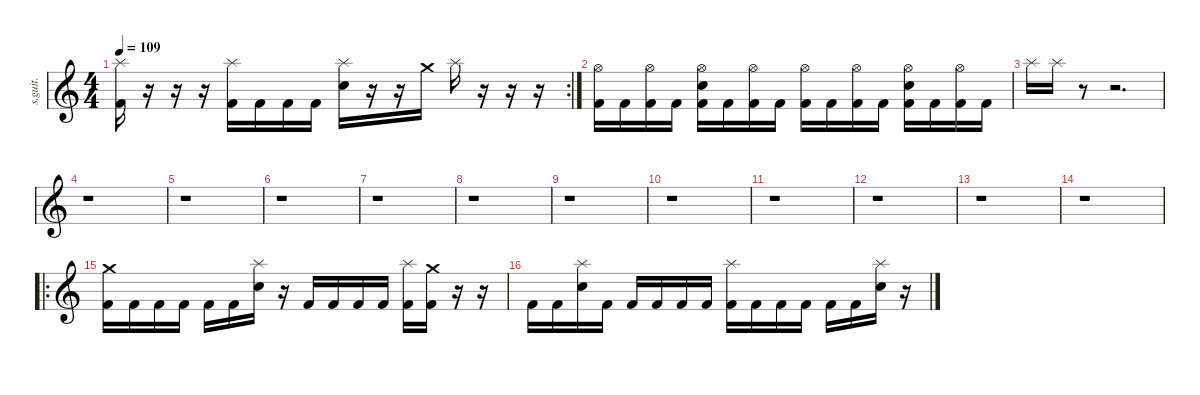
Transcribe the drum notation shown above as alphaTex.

\defaultSystemsLayout 4
\hideDynamics
\bracketExtendMode nobrackets
\track ("Drumkit" "s.guit.") {instrument percussion}
\staff {score}
\articulation defaults
\rc 2
\ts (4 4)
\tempo 109
\clef g2
\ks c
("Splash (hit)" "Kick (hit) 2").16{lyrics (0 "") lyrics (1 "") lyrics (2 "") lyrics (3 "") lyrics (4 "") dy f} r.16 r.16 r.16 ("Splash (hit)" "Kick (hit) 2").16{lyrics (0 "") lyrics (1 "") lyrics (2 "") lyrics (3 "") lyrics (4 "")} "Kick (hit) 2".16{lyrics (0 "") lyrics (1 "") lyrics (2 "") lyrics (3 "") lyrics (4 "")} "Kick (hit) 2".16{lyrics (0 "") lyrics (1 "") lyrics (2 "") lyrics (3 "") lyrics (4 "")} "Kick (hit) 2".16{lyrics (0 "") lyrics (1 "") lyrics (2 "") lyrics (3 "") lyrics (4 "")} ("Splash (hit)" "Electric Snare (hit)").16{lyrics (0 "") lyrics (1 "") lyrics (2 "") lyrics (3 "") lyrics (4 "")} r.16 r.16 "Crash medium (hit)".16{lyrics (0 "") lyrics (1 "") lyrics (2 "") lyrics (3 "") lyrics (4 "")} "Splash (hit)".16{lyrics (0 "") lyrics (1 "") lyrics (2 "") lyrics (3 "") lyrics (4 "")} r.16 r.16 r.16 |
("Hi-Hat (open)" "Kick (hit) 2").16{lyrics (0 "") lyrics (1 "") lyrics (2 "") lyrics (3 "") lyrics (4 "")} "Kick (hit) 2".16{lyrics (0 "") lyrics (1 "") lyrics (2 "") lyrics (3 "") lyrics (4 "")} ("Hi-Hat (open)" "Kick (hit) 2").16{lyrics (0 "") lyrics (1 "") lyrics (2 "") lyrics (3 "") lyrics (4 "")} "Kick (hit) 2".16{lyrics (0 "") lyrics (1 "") lyrics (2 "") lyrics (3 "") lyrics (4 "")} ("Hi-Hat (open)" "Electric Snare (hit)" "Kick (hit) 2").16{lyrics (0 "") lyrics (1 "") lyrics (2 "") lyrics (3 "") lyrics (4 "")} "Kick (hit) 2".16{lyrics (0 "") lyrics (1 "") lyrics (2 "") lyrics (3 "") lyrics (4 "")} ("Hi-Hat (open)" "Kick (hit) 2").16{lyrics (0 "") lyrics (1 "") lyrics (2 "") lyrics (3 "") lyrics (4 "")} "Kick (hit) 2".16{lyrics (0 "") lyrics (1 "") lyrics (2 "") lyrics (3 "") lyrics (4 "")} ("Hi-Hat (open)" "Kick (hit) 2").16{lyrics (0 "") lyrics (1 "") lyrics (2 "") lyrics (3 "") lyrics (4 "")} "Kick (hit) 2".16{lyrics (0 "") lyrics (1 "") lyrics (2 "") lyrics (3 "") lyrics (4 "")} ("Hi-Hat (open)" "Kick (hit) 2").16{lyrics (0 "") lyrics (1 "") lyrics (2 "") lyrics (3 "") lyrics (4 "")} "Kick (hit) 2".16{lyrics (0 "") lyrics (1 "") lyrics (2 "") lyrics (3 "") lyrics (4 "")} ("Hi-Hat (open)" "Electric Snare (hit)" "Kick (hit) 2").16{lyrics (0 "") lyrics (1 "") lyrics (2 "") lyrics (3 "") lyrics (4 "")} "Kick (hit) 2".16{lyrics (0 "") lyrics (1 "") lyrics (2 "") lyrics (3 "") lyrics (4 "")} ("Hi-Hat (open)" "Kick (hit) 2").16{lyrics (0 "") lyrics (1 "") lyrics (2 "") lyrics (3 "") lyrics (4 "")} "Kick (hit) 2".16{lyrics (0 "") lyrics (1 "") lyrics (2 "") lyrics (3 "") lyrics (4 "")} |
"Splash (hit)".16{lyrics (0 "") lyrics (1 "") lyrics (2 "") lyrics (3 "") lyrics (4 "")} "Splash (hit)".16{lyrics (0 "") lyrics (1 "") lyrics (2 "") lyrics (3 "") lyrics (4 "")} r.8 r.2{d} |
r.1 |
r.1 |
r.1 |
r.1 |
r.1 |
r.1 |
r.1 |
r.1 |
r.1 |
r.1 |
r.1 |
\ro
("Crash medium (hit)" "Kick (hit) 2").16{lyrics (0 "") lyrics (1 "") lyrics (2 "") lyrics (3 "") lyrics (4 "")} "Kick (hit) 2".16{lyrics (0 "") lyrics (1 "") lyrics (2 "") lyrics (3 "") lyrics (4 "")} "Kick (hit) 2".16{lyrics (0 "") lyrics (1 "") lyrics (2 "") lyrics (3 "") lyrics (4 "")} "Kick (hit) 2".16{lyrics (0 "") lyrics (1 "") lyrics (2 "") lyrics (3 "") lyrics (4 "")} "Kick (hit) 2".16{lyrics (0 "") lyrics (1 "") lyrics (2 "") lyrics (3 "") lyrics (4 "")} "Kick (hit) 2".16{lyrics (0 "") lyrics (1 "") lyrics (2 "") lyrics (3 "") lyrics (4 "")} ("Splash (hit)" "Electric Snare (hit)").16{lyrics (0 "") lyrics (1 "") lyrics (2 "") lyrics (3 "") lyrics (4 "")} r.16 "Kick (hit) 2".16{lyrics (0 "") lyrics (1 "") lyrics (2 "") lyrics (3 "") lyrics (4 "")} "Kick (hit) 2".16{lyrics (0 "") lyrics (1 "") lyrics (2 "") lyrics (3 "") lyrics (4 "")} "Kick (hit) 2".16{lyrics (0 "") lyrics (1 "") lyrics (2 "") lyrics (3 "") lyrics (4 "")} "Kick (hit) 2".16{lyrics (0 "") lyrics (1 "") lyrics (2 "") lyrics (3 "") lyrics (4 "")} ("Splash (hit)" "Kick (hit) 2").16{lyrics (0 "") lyrics (1 "") lyrics (2 "") lyrics (3 "") lyrics (4 "")} ("Crash medium (hit)" "Kick (hit) 2").16{lyrics (0 "") lyrics (1 "") lyrics (2 "") lyrics (3 "") lyrics (4 "")} r.16 r.16 |
"Kick (hit) 2".16{lyrics (0 "") lyrics (1 "") lyrics (2 "") lyrics (3 "") lyrics (4 "")} "Kick (hit) 2".16{lyrics (0 "") lyrics (1 "") lyrics (2 "") lyrics (3 "") lyrics (4 "")} ("Splash (hit)" "Electric Snare (hit)").16{lyrics (0 "") lyrics (1 "") lyrics (2 "") lyrics (3 "") lyrics (4 "")} "Kick (hit) 2".16{lyrics (0 "") lyrics (1 "") lyrics (2 "") lyrics (3 "") lyrics (4 "")} "Kick (hit) 2".16{lyrics (0 "") lyrics (1 "") lyrics (2 "") lyrics (3 "") lyrics (4 "")} "Kick (hit) 2".16{lyrics (0 "") lyrics (1 "") lyrics (2 "") lyrics (3 "") lyrics (4 "")} "Kick (hit) 2".16{lyrics (0 "") lyrics (1 "") lyrics (2 "") lyrics (3 "") lyrics (4 "")} "Kick (hit) 2".16{lyrics (0 "") lyrics (1 "") lyrics (2 "") lyrics (3 "") lyrics (4 "")} ("Splash (hit)" "Kick (hit) 2").16{lyrics (0 "") lyrics (1 "") lyrics (2 "") lyrics (3 "") lyrics (4 "")} "Kick (hit) 2".16{lyrics (0 "") lyrics (1 "") lyrics (2 "") lyrics (3 "") lyrics (4 "")} "Kick (hit) 2".16{lyrics (0 "") lyrics (1 "") lyrics (2 "") lyrics (3 "") lyrics (4 "")} "Kick (hit) 2".16{lyrics (0 "") lyrics (1 "") lyrics (2 "") lyrics (3 "") lyrics (4 "")} "Kick (hit) 2".16{lyrics (0 "") lyrics (1 "") lyrics (2 "") lyrics (3 "") lyrics (4 "")} "Kick (hit) 2".16{lyrics (0 "") lyrics (1 "") lyrics (2 "") lyrics (3 "") lyrics (4 "")} ("Splash (hit)" "Electric Snare (hit)").16{lyrics (0 "") lyrics (1 "") lyrics (2 "") lyrics (3 "") lyrics (4 "")} r.16
